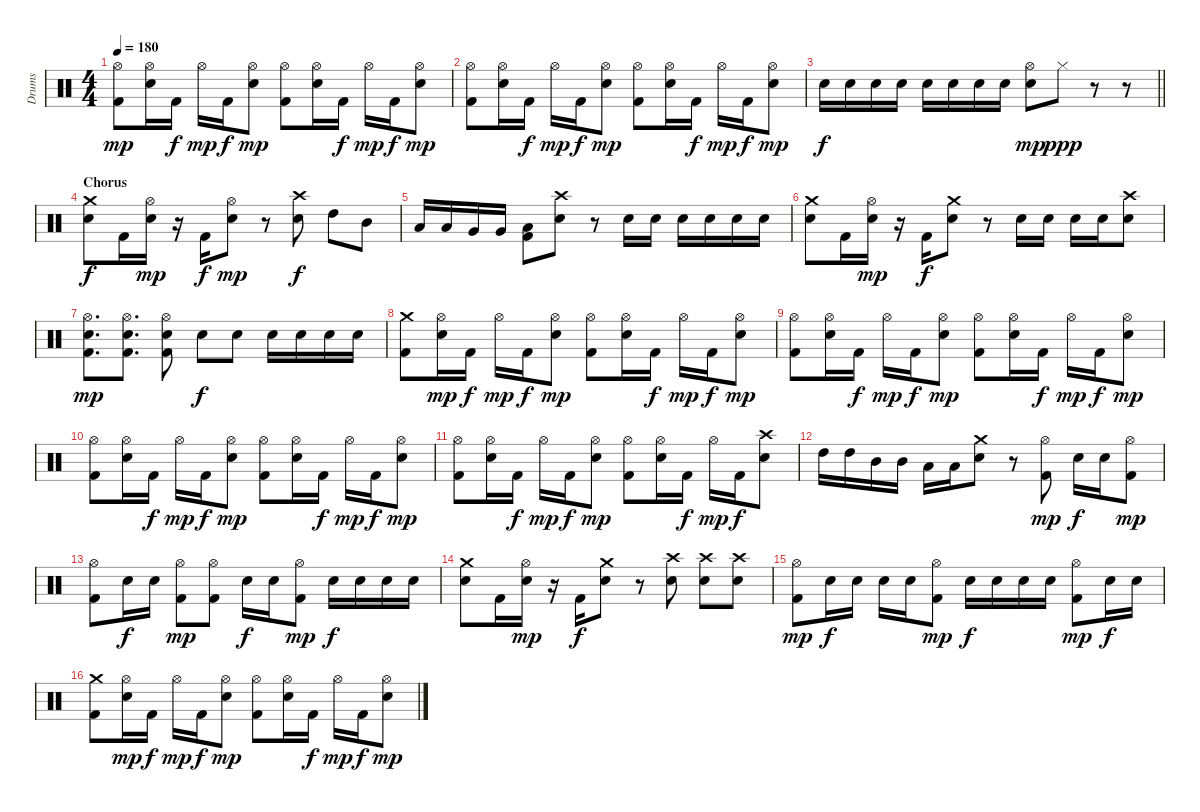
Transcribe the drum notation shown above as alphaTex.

\track ("Drums" "Drums") {instrument percussion}
\staff {score}
\articulation defaults
\ts (4 4)
\tempo 180
\clef neutral
\ks c
("Hi-Hat (open)" "Kick (hit) 2").8{dy mp} ("Hi-Hat (open)" "Snare (hit) 2").16 "Kick (hit) 2".16{dy f} "Hi-Hat (open)".16{dy mp} "Kick (hit) 2".16{dy f} ("Hi-Hat (open)" "Snare (hit) 2").8{dy mp} ("Hi-Hat (open)" "Kick (hit) 2").8 ("Hi-Hat (open)" "Snare (hit) 2").16 "Kick (hit) 2".16{dy f} "Hi-Hat (open)".16{dy mp} "Kick (hit) 2".16{dy f} ("Hi-Hat (open)" "Snare (hit) 2").8{dy mp} |
("Hi-Hat (open)" "Kick (hit) 2").8 ("Hi-Hat (open)" "Snare (hit) 2").16 "Kick (hit) 2".16{dy f} "Hi-Hat (open)".16{dy mp} "Kick (hit) 2".16{dy f} ("Hi-Hat (open)" "Snare (hit) 2").8{dy mp} ("Hi-Hat (open)" "Kick (hit) 2").8 ("Hi-Hat (open)" "Snare (hit) 2").16 "Kick (hit) 2".16{dy f} "Hi-Hat (open)".16{dy mp} "Kick (hit) 2".16{dy f} ("Hi-Hat (open)" "Snare (hit) 2").8{dy mp} |
\barLineRight lightlight "Snare (hit) 2".16{dy f} "Snare (hit) 2".16 "Snare (hit) 2".16 "Snare (hit) 2".16 "Snare (hit) 2".16 "Snare (hit) 2".16 "Snare (hit) 2".16 "Snare (hit) 2".16
("Hi-Hat (open)" "Snare (hit) 2").8{dy mp} "Hi-Hat (closed)".8{dy ppp} r.8 r.8 |
\section ("" "Chorus")
("Crash medium (hit)" "Snare (hit) 2").8{dy f} "Kick (hit) 2".16 ("Hi-Hat (open)" "Snare (hit) 2").16{dy mp} r.16 "Kick (hit) 2".16{dy f} ("Hi-Hat (open)" "Snare (hit) 2").8{dy mp} r.8 ("Crash high (hit)" "Snare (hit) 2").8{dy f} "High Tom (hit)".8 "Mid Tom (hit)".8 |
"Low Tom (hit)".16 "Low Tom (hit)".16 "Very Low Tom (hit)".16 "Very Low Tom (hit)".16 ("Low Floor Tom (hit)" "Kick (hit) 2").8 ("Crash high (hit)" "Snare (hit) 2").8 r.8 "Snare (hit) 2".16 "Snare (hit) 2".16 "Snare (hit) 2".16 "Snare (hit) 2".16 "Snare (hit) 2".16 "Snare (hit) 2".16 |
("Crash medium (hit)" "Snare (hit) 2").8 "Kick (hit) 2".16 ("Hi-Hat (open)" "Snare (hit) 2").16{dy mp} r.16 "Kick (hit) 2".16{dy f} ("Crash medium (hit)" "Snare (hit) 2").8 r.8 "Snare (hit) 2".16 "Snare (hit) 2".16 "Snare (hit) 2".16 "Snare (hit) 2".16 ("Crash high (hit)" "Snare (hit) 2").8 |
("Hi-Hat (open)" "Snare (hit) 2" "Kick (hit) 2").8{d dy mp} ("Hi-Hat (open)" "Snare (hit) 2" "Kick (hit) 2").8{d} ("Hi-Hat (open)" "Snare (hit) 2" "Kick (hit) 2").8 "Snare (hit) 2".8{dy f} "Snare (hit) 2".8 "Snare (hit) 2".16 "Snare (hit) 2".16 "Snare (hit) 2".16 "Snare (hit) 2".16 |
("Crash medium (hit)" "Kick (hit) 2").8 ("Hi-Hat (open)" "Snare (hit) 2").16{dy mp} "Kick (hit) 2".16{dy f} "Hi-Hat (open)".16{dy mp} "Kick (hit) 2".16{dy f} ("Hi-Hat (open)" "Snare (hit) 2").8{dy mp} ("Hi-Hat (open)" "Kick (hit) 2").8 ("Hi-Hat (open)" "Snare (hit) 2").16 "Kick (hit) 2".16{dy f} "Hi-Hat (open)".16{dy mp} "Kick (hit) 2".16{dy f} ("Hi-Hat (open)" "Snare (hit) 2").8{dy mp} |
("Hi-Hat (open)" "Kick (hit) 2").8 ("Hi-Hat (open)" "Snare (hit) 2").16 "Kick (hit) 2".16{dy f} "Hi-Hat (open)".16{dy mp} "Kick (hit) 2".16{dy f} ("Hi-Hat (open)" "Snare (hit) 2").8{dy mp} ("Hi-Hat (open)" "Kick (hit) 2").8 ("Hi-Hat (open)" "Snare (hit) 2").16 "Kick (hit) 2".16{dy f} "Hi-Hat (open)".16{dy mp} "Kick (hit) 2".16{dy f} ("Hi-Hat (open)" "Snare (hit) 2").8{dy mp} |
("Hi-Hat (open)" "Kick (hit) 2").8 ("Hi-Hat (open)" "Snare (hit) 2").16 "Kick (hit) 2".16{dy f} "Hi-Hat (open)".16{dy mp} "Kick (hit) 2".16{dy f} ("Hi-Hat (open)" "Snare (hit) 2").8{dy mp} ("Hi-Hat (open)" "Kick (hit) 2").8 ("Hi-Hat (open)" "Snare (hit) 2").16 "Kick (hit) 2".16{dy f} "Hi-Hat (open)".16{dy mp} "Kick (hit) 2".16{dy f} ("Hi-Hat (open)" "Snare (hit) 2").8{dy mp} |
("Hi-Hat (open)" "Kick (hit) 2").8 ("Hi-Hat (open)" "Snare (hit) 2").16 "Kick (hit) 2".16{dy f} "Hi-Hat (open)".16{dy mp} "Kick (hit) 2".16{dy f} ("Hi-Hat (open)" "Snare (hit) 2").8{dy mp} ("Hi-Hat (open)" "Kick (hit) 2").8 ("Hi-Hat (open)" "Snare (hit) 2").16 "Kick (hit) 2".16{dy f} "Hi-Hat (open)".16{dy mp} "Kick (hit) 2".16{dy f} ("Crash high (hit)" "Snare (hit) 2").8 |
"High Tom (hit)".16 "High Tom (hit)".16 "Mid Tom (hit)".16 "Mid Tom (hit)".16 "Low Tom (hit)".16 "Low Tom (hit)".16 ("Crash medium (hit)" "Snare (hit) 2").8 r.8 ("Hi-Hat (open)" "Kick (hit) 2").8{dy mp} "Snare (hit) 2".16{dy f} "Snare (hit) 2".16 ("Hi-Hat (open)" "Kick (hit) 2").8{dy mp} |
("Hi-Hat (open)" "Kick (hit) 2").8 "Snare (hit) 2".16{dy f} "Snare (hit) 2".16 ("Hi-Hat (open)" "Kick (hit) 2").8{dy mp} ("Hi-Hat (open)" "Kick (hit) 2").8 "Snare (hit) 2".16{dy f} "Snare (hit) 2".16 ("Hi-Hat (open)" "Kick (hit) 2").8{dy mp} "Snare (hit) 2".16{dy f} "Snare (hit) 2".16 "Snare (hit) 2".16 "Snare (hit) 2".16 |
("Crash medium (hit)" "Snare (hit) 2").8 "Kick (hit) 2".16 ("Hi-Hat (open)" "Snare (hit) 2").16{dy mp} r.16 "Kick (hit) 2".16{dy f} ("Crash medium (hit)" "Snare (hit) 2").8 r.8 ("Crash high (hit)" "Snare (hit) 2").8 ("Crash high (hit)" "Snare (hit) 2").8 ("Crash high (hit)" "Snare (hit) 2").8 |
("Hi-Hat (open)" "Kick (hit) 2").8{dy mp} "Snare (hit) 2".16{dy f} "Snare (hit) 2".16 "Snare (hit) 2".16 "Snare (hit) 2".16 ("Hi-Hat (open)" "Kick (hit) 2").8{dy mp} "Snare (hit) 2".16{dy f} "Snare (hit) 2".16 "Snare (hit) 2".16 "Snare (hit) 2".16 ("Hi-Hat (open)" "Kick (hit) 2").8{dy mp} "Snare (hit) 2".16{dy f} "Snare (hit) 2".16 |
("Crash medium (hit)" "Kick (hit) 2").8 ("Hi-Hat (open)" "Snare (hit) 2").16{dy mp} "Kick (hit) 2".16{dy f} "Hi-Hat (open)".16{dy mp} "Kick (hit) 2".16{dy f} ("Hi-Hat (open)" "Snare (hit) 2").8{dy mp} ("Hi-Hat (open)" "Kick (hit) 2").8 ("Hi-Hat (open)" "Snare (hit) 2").16 "Kick (hit) 2".16{dy f} "Hi-Hat (open)".16{dy mp} "Kick (hit) 2".16{dy f} ("Hi-Hat (open)" "Snare (hit) 2").8{dy mp}
